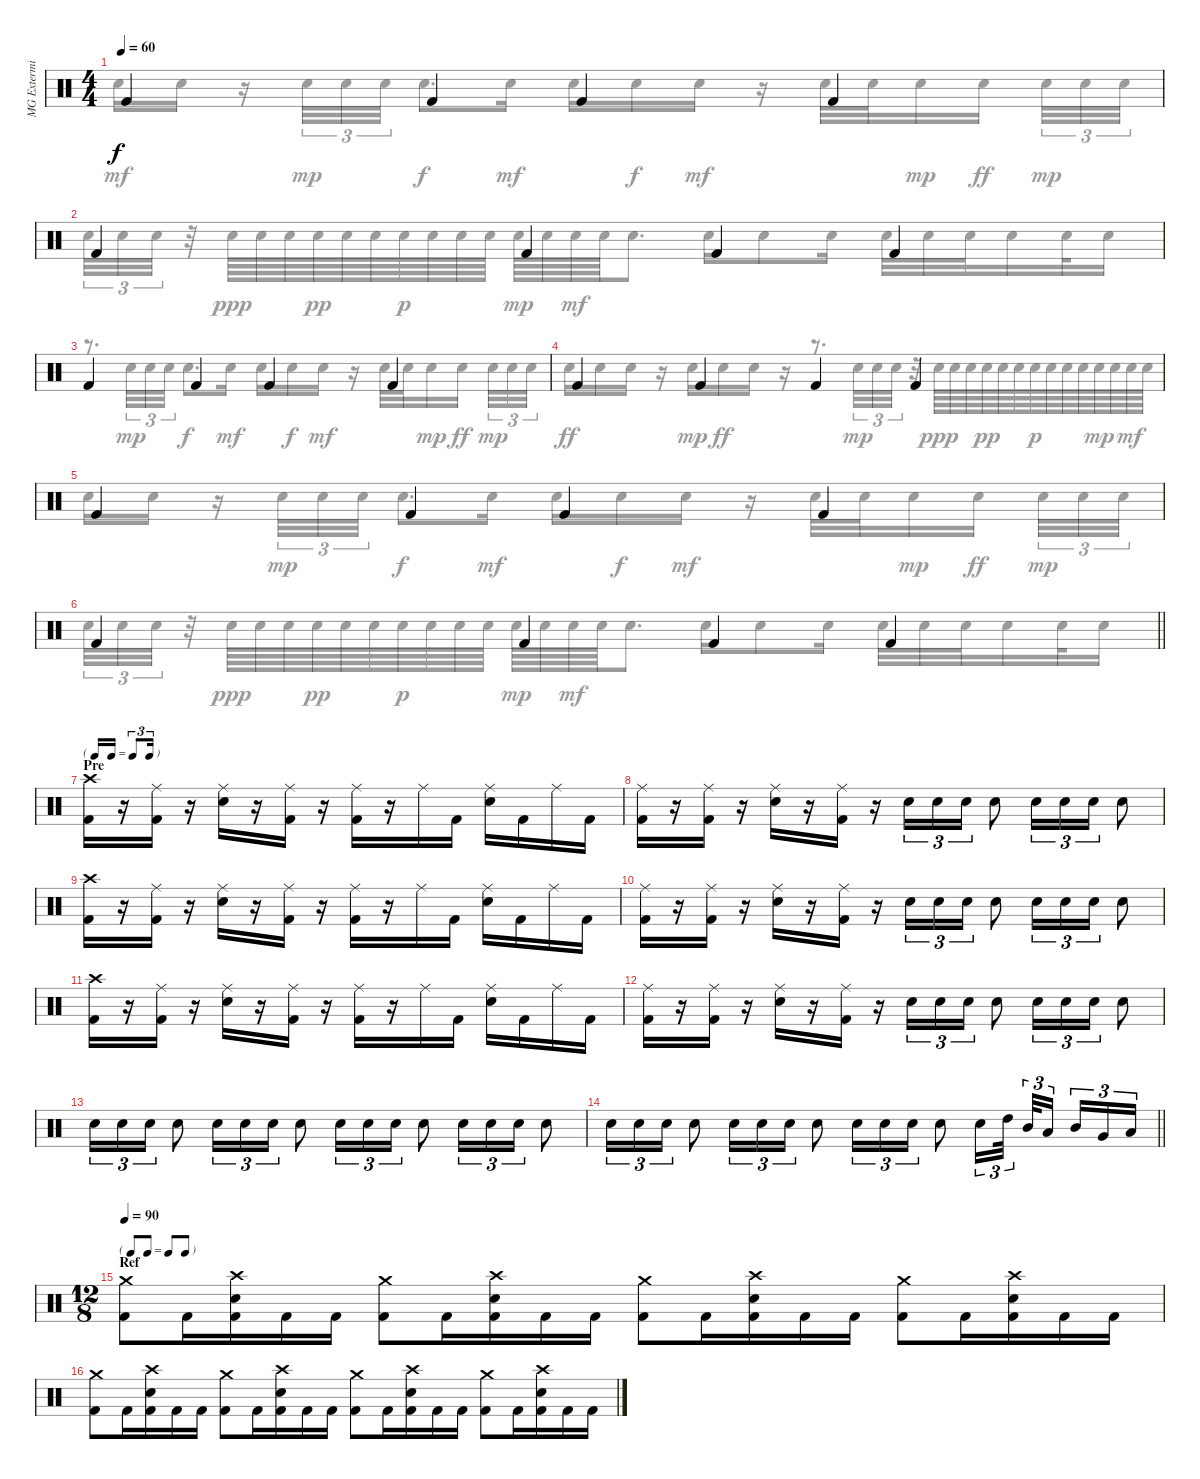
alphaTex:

\track ("MG Exterminator" "MG Extermi") {instrument percussion}
\staff {score}
\articulation defaults
\voice
\ts (4 4)
\tempo 60
\clef neutral
\ks c "Kick (hit) 2".4{dy f} "Kick (hit) 2".4 "Kick (hit) 2".4 "Kick (hit) 2".4
|
"Kick (hit) 2".4 "Kick (hit) 2".4 "Kick (hit) 2".4 "Kick (hit) 2".4 |
"Kick (hit) 2".4 "Kick (hit) 2".4 "Kick (hit) 2".4 "Kick (hit) 2".4 |
"Kick (hit) 2".4 "Kick (hit) 2".4 "Kick (hit) 2".4 "Kick (hit) 2".4 |
"Kick (hit) 2".4 "Kick (hit) 2".4 "Kick (hit) 2".4 "Kick (hit) 2".4 |
\barLineRight lightlight "Kick (hit) 2".4 "Kick (hit) 2".4 "Kick (hit) 2".4 "Kick (hit) 2".4
|
\tf triplet16th
\section ("" "Pre")
("Crash high (hit)" "Kick (hit) 2").16 r.16 ("Ride (middle)" "Kick (hit) 2").16 r.16 ("Ride (middle)" "Snare (hit) 2").16 r.16 ("Ride (middle)" "Kick (hit) 2").16 r.16 ("Ride (middle)" "Kick (hit) 2").16 r.16 "Ride (middle)".16 "Kick (hit) 2".16 ("Ride (middle)" "Snare (hit) 2").16 "Kick (hit) 2".16 "Ride (middle)".16 "Kick (hit) 2".16 |
("Ride (middle)" "Kick (hit) 2").16 r.16 ("Ride (middle)" "Kick (hit) 2").16 r.16 ("Ride (middle)" "Snare (hit) 2").16 r.16 ("Ride (middle)" "Kick (hit) 2").16 r.16 "Snare (hit) 2".16{tu (3 2)} "Snare (hit) 2".16{tu (3 2)} "Snare (hit) 2".16{tu (3 2)} "Snare (hit) 2".8 "Snare (hit) 2".16{tu (3 2)} "Snare (hit) 2".16{tu (3 2)} "Snare (hit) 2".16{tu (3 2)} "Snare (hit) 2".8 |
("Crash high (hit)" "Kick (hit) 2").16 r.16 ("Ride (middle)" "Kick (hit) 2").16 r.16 ("Ride (middle)" "Snare (hit) 2").16 r.16 ("Ride (middle)" "Kick (hit) 2").16 r.16 ("Ride (middle)" "Kick (hit) 2").16 r.16 "Ride (middle)".16 "Kick (hit) 2".16 ("Ride (middle)" "Snare (hit) 2").16 "Kick (hit) 2".16 "Ride (middle)".16 "Kick (hit) 2".16 |
("Ride (middle)" "Kick (hit) 2").16 r.16 ("Ride (middle)" "Kick (hit) 2").16 r.16 ("Ride (middle)" "Snare (hit) 2").16 r.16 ("Ride (middle)" "Kick (hit) 2").16 r.16 "Snare (hit) 2".16{tu (3 2)} "Snare (hit) 2".16{tu (3 2)} "Snare (hit) 2".16{tu (3 2)} "Snare (hit) 2".8 "Snare (hit) 2".16{tu (3 2)} "Snare (hit) 2".16{tu (3 2)} "Snare (hit) 2".16{tu (3 2)} "Snare (hit) 2".8 |
("Crash high (hit)" "Kick (hit) 2").16 r.16 ("Ride (middle)" "Kick (hit) 2").16 r.16 ("Ride (middle)" "Snare (hit) 2").16 r.16 ("Ride (middle)" "Kick (hit) 2").16 r.16 ("Ride (middle)" "Kick (hit) 2").16 r.16 "Ride (middle)".16 "Kick (hit) 2".16 ("Ride (middle)" "Snare (hit) 2").16 "Kick (hit) 2".16 "Ride (middle)".16 "Kick (hit) 2".16 |
("Ride (middle)" "Kick (hit) 2").16 r.16 ("Ride (middle)" "Kick (hit) 2").16 r.16 ("Ride (middle)" "Snare (hit) 2").16 r.16 ("Ride (middle)" "Kick (hit) 2").16 r.16 "Snare (hit) 2".16{tu (3 2)} "Snare (hit) 2".16{tu (3 2)} "Snare (hit) 2".16{tu (3 2)} "Snare (hit) 2".8 "Snare (hit) 2".16{tu (3 2)} "Snare (hit) 2".16{tu (3 2)} "Snare (hit) 2".16{tu (3 2)} "Snare (hit) 2".8 |
"Snare (hit) 2".16{tu (3 2)} "Snare (hit) 2".16{tu (3 2)} "Snare (hit) 2".16{tu (3 2)} "Snare (hit) 2".8 "Snare (hit) 2".16{tu (3 2)} "Snare (hit) 2".16{tu (3 2)} "Snare (hit) 2".16{tu (3 2)} "Snare (hit) 2".8 "Snare (hit) 2".16{tu (3 2)} "Snare (hit) 2".16{tu (3 2)} "Snare (hit) 2".16{tu (3 2)} "Snare (hit) 2".8 "Snare (hit) 2".16{tu (3 2)} "Snare (hit) 2".16{tu (3 2)} "Snare (hit) 2".16{tu (3 2)} "Snare (hit) 2".8 |
\barLineRight lightlight "Snare (hit) 2".16{tu (3 2)} "Snare (hit) 2".16{tu (3 2)} "Snare (hit) 2".16{tu (3 2)} "Snare (hit) 2".8 "Snare (hit) 2".16{tu (3 2)} "Snare (hit) 2".16{tu (3 2)} "Snare (hit) 2".16{tu (3 2)} "Snare (hit) 2".8 "Snare (hit) 2".16{tu (3 2)} "Snare (hit) 2".16{tu (3 2)} "Snare (hit) 2".16{tu (3 2)} "Snare (hit) 2".8 "Snare (hit) 2".16{tu (3 2)} "High Tom (hit)".32{tu (3 2) beam splitsecondary} "Mid Tom (hit)".32{tu (3 2)} "Low Tom (hit)".16{tu (3 2) beam splitsecondary} "Mid Tom (hit)".16{tu (3 2)} "Very Low Tom (hit)".16{tu (3 2)} "Low Floor Tom (hit)".16{tu (3 2)}
|
\ts (12 8)
\tf none
\section ("" "Ref")
\tempo 90
("Crash medium (hit)" "Kick (hit) 2").8 "Kick (hit) 2".16 ("Crash high (hit)" "Snare (hit) 2" "Kick (hit) 2").16 "Kick (hit) 2".16 "Kick (hit) 2".16 ("Crash medium (hit)" "Kick (hit) 2").8 "Kick (hit) 2".16 ("Crash high (hit)" "Snare (hit) 2" "Kick (hit) 2").16 "Kick (hit) 2".16 "Kick (hit) 2".16 ("Crash medium (hit)" "Kick (hit) 2").8 "Kick (hit) 2".16 ("Crash high (hit)" "Snare (hit) 2" "Kick (hit) 2").16 "Kick (hit) 2".16 "Kick (hit) 2".16 ("Crash medium (hit)" "Kick (hit) 2").8 "Kick (hit) 2".16 ("Crash high (hit)" "Snare (hit) 2" "Kick (hit) 2").16 "Kick (hit) 2".16 "Kick (hit) 2".16 |
("Crash medium (hit)" "Kick (hit) 2").8 "Kick (hit) 2".16 ("Crash high (hit)" "Snare (hit) 2" "Kick (hit) 2").16 "Kick (hit) 2".16 "Kick (hit) 2".16 ("Crash medium (hit)" "Kick (hit) 2").8 "Kick (hit) 2".16 ("Crash high (hit)" "Snare (hit) 2" "Kick (hit) 2").16 "Kick (hit) 2".16 "Kick (hit) 2".16 ("Crash medium (hit)" "Kick (hit) 2").8 "Kick (hit) 2".16 ("Crash high (hit)" "Snare (hit) 2" "Kick (hit) 2").16 "Kick (hit) 2".16 "Kick (hit) 2".16 ("Crash medium (hit)" "Kick (hit) 2").8 "Kick (hit) 2".16 ("Crash high (hit)" "Snare (hit) 2" "Kick (hit) 2").16 "Kick (hit) 2".16 "Kick (hit) 2".16
\voice
\clef neutral
\ottava regular
\simile none
\ks c "Snare (hit) 2".16{dy mf} "Snare (hit) 2".16
r.16 "Snare (hit) 2".32{tu (3 2) dy mp} "Snare (hit) 2".32{tu (3 2)} "Snare (hit) 2".32{tu (3 2)} "Snare (hit) 2".8{d dy f} "Snare (hit) 2".16{dy mf} "Snare (hit) 2".16 "Snare (hit) 2".16{dy f} "Snare (hit) 2".16{dy mf} r.16 "Snare (hit) 2".32 "Snare (hit) 2".32 "Snare (hit) 2".16{dy mp} "Snare (hit) 2".16{dy ff beam splitsecondary} "Snare (hit) 2".32{tu (3 2) dy mp} "Snare (hit) 2".32{tu (3 2)} "Snare (hit) 2".32{tu (3 2)} |
"Snare (hit) 2".32{tu (3 2)} "Snare (hit) 2".32{tu (3 2)} "Snare (hit) 2".32{tu (3 2)} r.32 "Snare (hit) 2".64{dy ppp} "Snare (hit) 2".64 "Snare (hit) 2".64 "Snare (hit) 2".64{dy pp} "Snare (hit) 2".64 "Snare (hit) 2".64 "Snare (hit) 2".64{dy p} "Snare (hit) 2".64 "Snare (hit) 2".64 "Snare (hit) 2".64 "Snare (hit) 2".64{dy mp} "Snare (hit) 2".64 "Snare (hit) 2".64{dy mf} "Snare (hit) 2".64 "Snare (hit) 2".8{d} "Snare (hit) 2".16 "Snare (hit) 2".8 "Snare (hit) 2".16 "Snare (hit) 2".32 "Snare (hit) 2".32 "Snare (hit) 2".32 "Snare (hit) 2".16 "Snare (hit) 2".32 "Snare (hit) 2".16 |
r.8{d} "Snare (hit) 2".32{tu (3 2) dy mp} "Snare (hit) 2".32{tu (3 2)} "Snare (hit) 2".32{tu (3 2)} "Snare (hit) 2".8{d dy f} "Snare (hit) 2".16{dy mf} "Snare (hit) 2".16 "Snare (hit) 2".16{dy f} "Snare (hit) 2".16{dy mf} r.16 "Snare (hit) 2".32 "Snare (hit) 2".32 "Snare (hit) 2".16{dy mp} "Snare (hit) 2".16{dy ff beam splitsecondary} "Snare (hit) 2".32{tu (3 2) dy mp} "Snare (hit) 2".32{tu (3 2)} "Snare (hit) 2".32{tu (3 2)} |
"Snare (hit) 2".16{dy ff} "Snare (hit) 2".16 "Snare (hit) 2".16 r.16 "Snare (hit) 2".16{dy mp} "Snare (hit) 2".16{dy ff} "Snare (hit) 2".16 r.16 r.8{d} "Snare (hit) 2".32{tu (3 2) dy mp} "Snare (hit) 2".32{tu (3 2)} "Snare (hit) 2".32{tu (3 2)} r.32 "Snare (hit) 2".64{dy ppp} "Snare (hit) 2".64 "Snare (hit) 2".64 "Snare (hit) 2".64{dy pp} "Snare (hit) 2".64 "Snare (hit) 2".64 "Snare (hit) 2".64{dy p} "Snare (hit) 2".64 "Snare (hit) 2".64 "Snare (hit) 2".64 "Snare (hit) 2".64{dy mp} "Snare (hit) 2".64 "Snare (hit) 2".64{dy mf} "Snare (hit) 2".64 |
"Snare (hit) 2".16 "Snare (hit) 2".16 r.16 "Snare (hit) 2".32{tu (3 2) dy mp} "Snare (hit) 2".32{tu (3 2)} "Snare (hit) 2".32{tu (3 2)} "Snare (hit) 2".8{d dy f} "Snare (hit) 2".16{dy mf} "Snare (hit) 2".16 "Snare (hit) 2".16{dy f} "Snare (hit) 2".16{dy mf} r.16 "Snare (hit) 2".32 "Snare (hit) 2".32 "Snare (hit) 2".16{dy mp} "Snare (hit) 2".16{dy ff beam splitsecondary} "Snare (hit) 2".32{tu (3 2) dy mp} "Snare (hit) 2".32{tu (3 2)} "Snare (hit) 2".32{tu (3 2)} |
\barLineRight lightlight "Snare (hit) 2".32{tu (3 2)} "Snare (hit) 2".32{tu (3 2)} "Snare (hit) 2".32{tu (3 2)}
r.32 "Snare (hit) 2".64{dy ppp} "Snare (hit) 2".64 "Snare (hit) 2".64 "Snare (hit) 2".64{dy pp} "Snare (hit) 2".64 "Snare (hit) 2".64 "Snare (hit) 2".64{dy p} "Snare (hit) 2".64 "Snare (hit) 2".64 "Snare (hit) 2".64 "Snare (hit) 2".64{dy mp} "Snare (hit) 2".64 "Snare (hit) 2".64{dy mf} "Snare (hit) 2".64 "Snare (hit) 2".8{d} "Snare (hit) 2".16 "Snare (hit) 2".8 "Snare (hit) 2".16 "Snare (hit) 2".32 "Snare (hit) 2".32 "Snare (hit) 2".32 "Snare (hit) 2".16 "Snare (hit) 2".32 "Snare (hit) 2".16 |
|
|
|
|
|
|
|
\barLineRight lightlight
|
|
